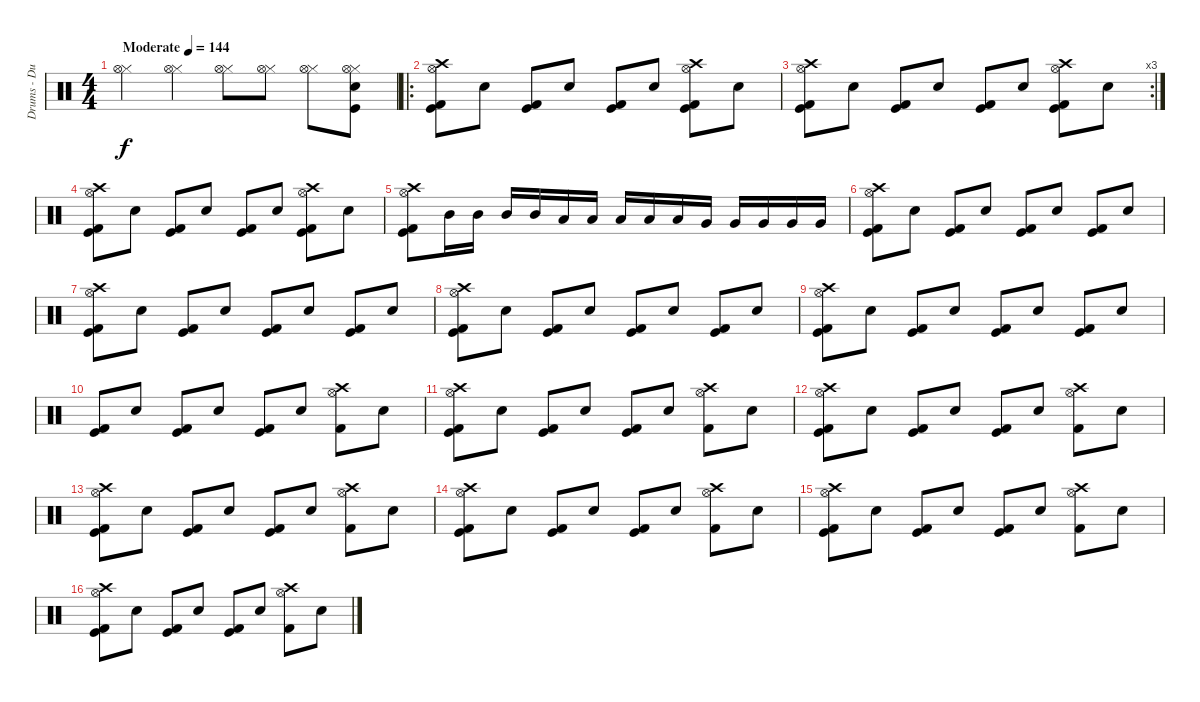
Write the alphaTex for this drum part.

\track ("Drums - Duncan Scott" "Drums - Du") {instrument percussion}
\staff {score}
\articulation defaults
\ts (4 4)
\tempo (144 "Moderate")
\clef neutral
\ks c
("Hi-Hat (closed)" "Hi-Hat (open)").4{dy f} ("Hi-Hat (closed)" "Hi-Hat (open)").4 ("Hi-Hat (closed)" "Hi-Hat (open)").8 ("Hi-Hat (closed)" "Hi-Hat (open)").8 ("Hi-Hat (closed)" "Hi-Hat (open)").8 ("Hi-Hat (closed)" "Hi-Hat (open)" "Electric Snare (hit)" "Kick (hit)").8 |
\ro
("Hi-Hat (open)" "Crash high (hit)" "Kick (hit)" "Kick (hit) 2").8 "Electric Snare (hit)".8 ("Kick (hit)" "Kick (hit) 2").8 "Electric Snare (hit)".8 ("Kick (hit)" "Kick (hit) 2").8 "Electric Snare (hit)".8 ("Hi-Hat (open)" "Crash high (hit)" "Kick (hit)" "Kick (hit) 2").8 "Electric Snare (hit)".8 |
\rc 3
("Hi-Hat (open)" "Crash high (hit)" "Kick (hit)" "Kick (hit) 2").8 "Electric Snare (hit)".8 ("Kick (hit)" "Kick (hit) 2").8 "Electric Snare (hit)".8 ("Kick (hit)" "Kick (hit) 2").8 "Electric Snare (hit)".8 ("Hi-Hat (open)" "Crash high (hit)" "Kick (hit)" "Kick (hit) 2").8 "Electric Snare (hit)".8 |
("Hi-Hat (open)" "Crash high (hit)" "Kick (hit)" "Kick (hit) 2").8 "Electric Snare (hit)".8 ("Kick (hit)" "Kick (hit) 2").8 "Electric Snare (hit)".8 ("Kick (hit)" "Kick (hit) 2").8 "Electric Snare (hit)".8 ("Hi-Hat (open)" "Crash high (hit)" "Kick (hit)" "Kick (hit) 2").8 "Electric Snare (hit)".8 |
("Hi-Hat (open)" "Crash high (hit)" "Kick (hit)" "Kick (hit) 2").8 "Mid Tom (hit)".16 "Mid Tom (hit)".16 "Mid Tom (hit)".16 "Mid Tom (hit)".16 "Low Tom (hit)".16 "Low Tom (hit)".16 "Low Tom (hit)".16 "Low Tom (hit)".16 "Low Tom (hit)".16 "Very Low Tom (hit)".16 "Very Low Tom (hit)".16 "Very Low Tom (hit)".16 "Very Low Tom (hit)".16 "Very Low Tom (hit)".16 |
("Hi-Hat (open)" "Crash high (hit)" "Kick (hit)" "Kick (hit) 2").8 "Electric Snare (hit)".8 ("Kick (hit)" "Kick (hit) 2").8 "Electric Snare (hit)".8 ("Kick (hit)" "Kick (hit) 2").8 "Electric Snare (hit)".8 ("Kick (hit)" "Kick (hit) 2").8 "Electric Snare (hit)".8 |
("Hi-Hat (open)" "Crash high (hit)" "Kick (hit)" "Kick (hit) 2").8 "Electric Snare (hit)".8 ("Kick (hit)" "Kick (hit) 2").8 "Electric Snare (hit)".8 ("Kick (hit)" "Kick (hit) 2").8 "Electric Snare (hit)".8 ("Kick (hit)" "Kick (hit) 2").8 "Electric Snare (hit)".8 |
("Hi-Hat (open)" "Crash high (hit)" "Kick (hit)" "Kick (hit) 2").8 "Electric Snare (hit)".8 ("Kick (hit)" "Kick (hit) 2").8 "Electric Snare (hit)".8 ("Kick (hit)" "Kick (hit) 2").8 "Electric Snare (hit)".8 ("Kick (hit)" "Kick (hit) 2").8 "Electric Snare (hit)".8 |
("Hi-Hat (open)" "Crash high (hit)" "Kick (hit)" "Kick (hit) 2").8 "Electric Snare (hit)".8 ("Kick (hit)" "Kick (hit) 2").8 "Electric Snare (hit)".8 ("Kick (hit)" "Kick (hit) 2").8 "Electric Snare (hit)".8 ("Kick (hit)" "Kick (hit) 2").8 "Electric Snare (hit)".8 |
("Kick (hit)" "Kick (hit) 2").8 "Electric Snare (hit)".8 ("Kick (hit)" "Kick (hit) 2").8 "Electric Snare (hit)".8 ("Kick (hit)" "Kick (hit) 2").8 "Electric Snare (hit)".8 ("Hi-Hat (open)" "Crash high (hit)" "Kick (hit) 2").8 "Electric Snare (hit)".8 |
("Hi-Hat (open)" "Crash high (hit)" "Kick (hit)" "Kick (hit) 2").8 "Electric Snare (hit)".8 ("Kick (hit)" "Kick (hit) 2").8 "Electric Snare (hit)".8 ("Kick (hit)" "Kick (hit) 2").8 "Electric Snare (hit)".8 ("Hi-Hat (open)" "Crash high (hit)" "Kick (hit) 2").8 "Electric Snare (hit)".8 |
("Hi-Hat (open)" "Crash high (hit)" "Kick (hit)" "Kick (hit) 2").8 "Electric Snare (hit)".8 ("Kick (hit)" "Kick (hit) 2").8 "Electric Snare (hit)".8 ("Kick (hit)" "Kick (hit) 2").8 "Electric Snare (hit)".8 ("Hi-Hat (open)" "Crash high (hit)" "Kick (hit) 2").8 "Electric Snare (hit)".8 |
("Hi-Hat (open)" "Crash high (hit)" "Kick (hit)" "Kick (hit) 2").8 "Electric Snare (hit)".8 ("Kick (hit)" "Kick (hit) 2").8 "Electric Snare (hit)".8 ("Kick (hit)" "Kick (hit) 2").8 "Electric Snare (hit)".8 ("Hi-Hat (open)" "Crash high (hit)" "Kick (hit) 2").8 "Electric Snare (hit)".8 |
("Hi-Hat (open)" "Crash high (hit)" "Kick (hit)" "Kick (hit) 2").8 "Electric Snare (hit)".8 ("Kick (hit)" "Kick (hit) 2").8 "Electric Snare (hit)".8 ("Kick (hit)" "Kick (hit) 2").8 "Electric Snare (hit)".8 ("Hi-Hat (open)" "Crash high (hit)" "Kick (hit) 2").8 "Electric Snare (hit)".8 |
("Hi-Hat (open)" "Crash high (hit)" "Kick (hit)" "Kick (hit) 2").8 "Electric Snare (hit)".8 ("Kick (hit)" "Kick (hit) 2").8 "Electric Snare (hit)".8 ("Kick (hit)" "Kick (hit) 2").8 "Electric Snare (hit)".8 ("Hi-Hat (open)" "Crash high (hit)" "Kick (hit) 2").8 "Electric Snare (hit)".8 |
("Hi-Hat (open)" "Crash high (hit)" "Kick (hit)" "Kick (hit) 2").8 "Electric Snare (hit)".8 ("Kick (hit)" "Kick (hit) 2").8 "Electric Snare (hit)".8 ("Kick (hit)" "Kick (hit) 2").8 "Electric Snare (hit)".8 ("Hi-Hat (open)" "Crash high (hit)" "Kick (hit) 2").8 "Electric Snare (hit)".8
